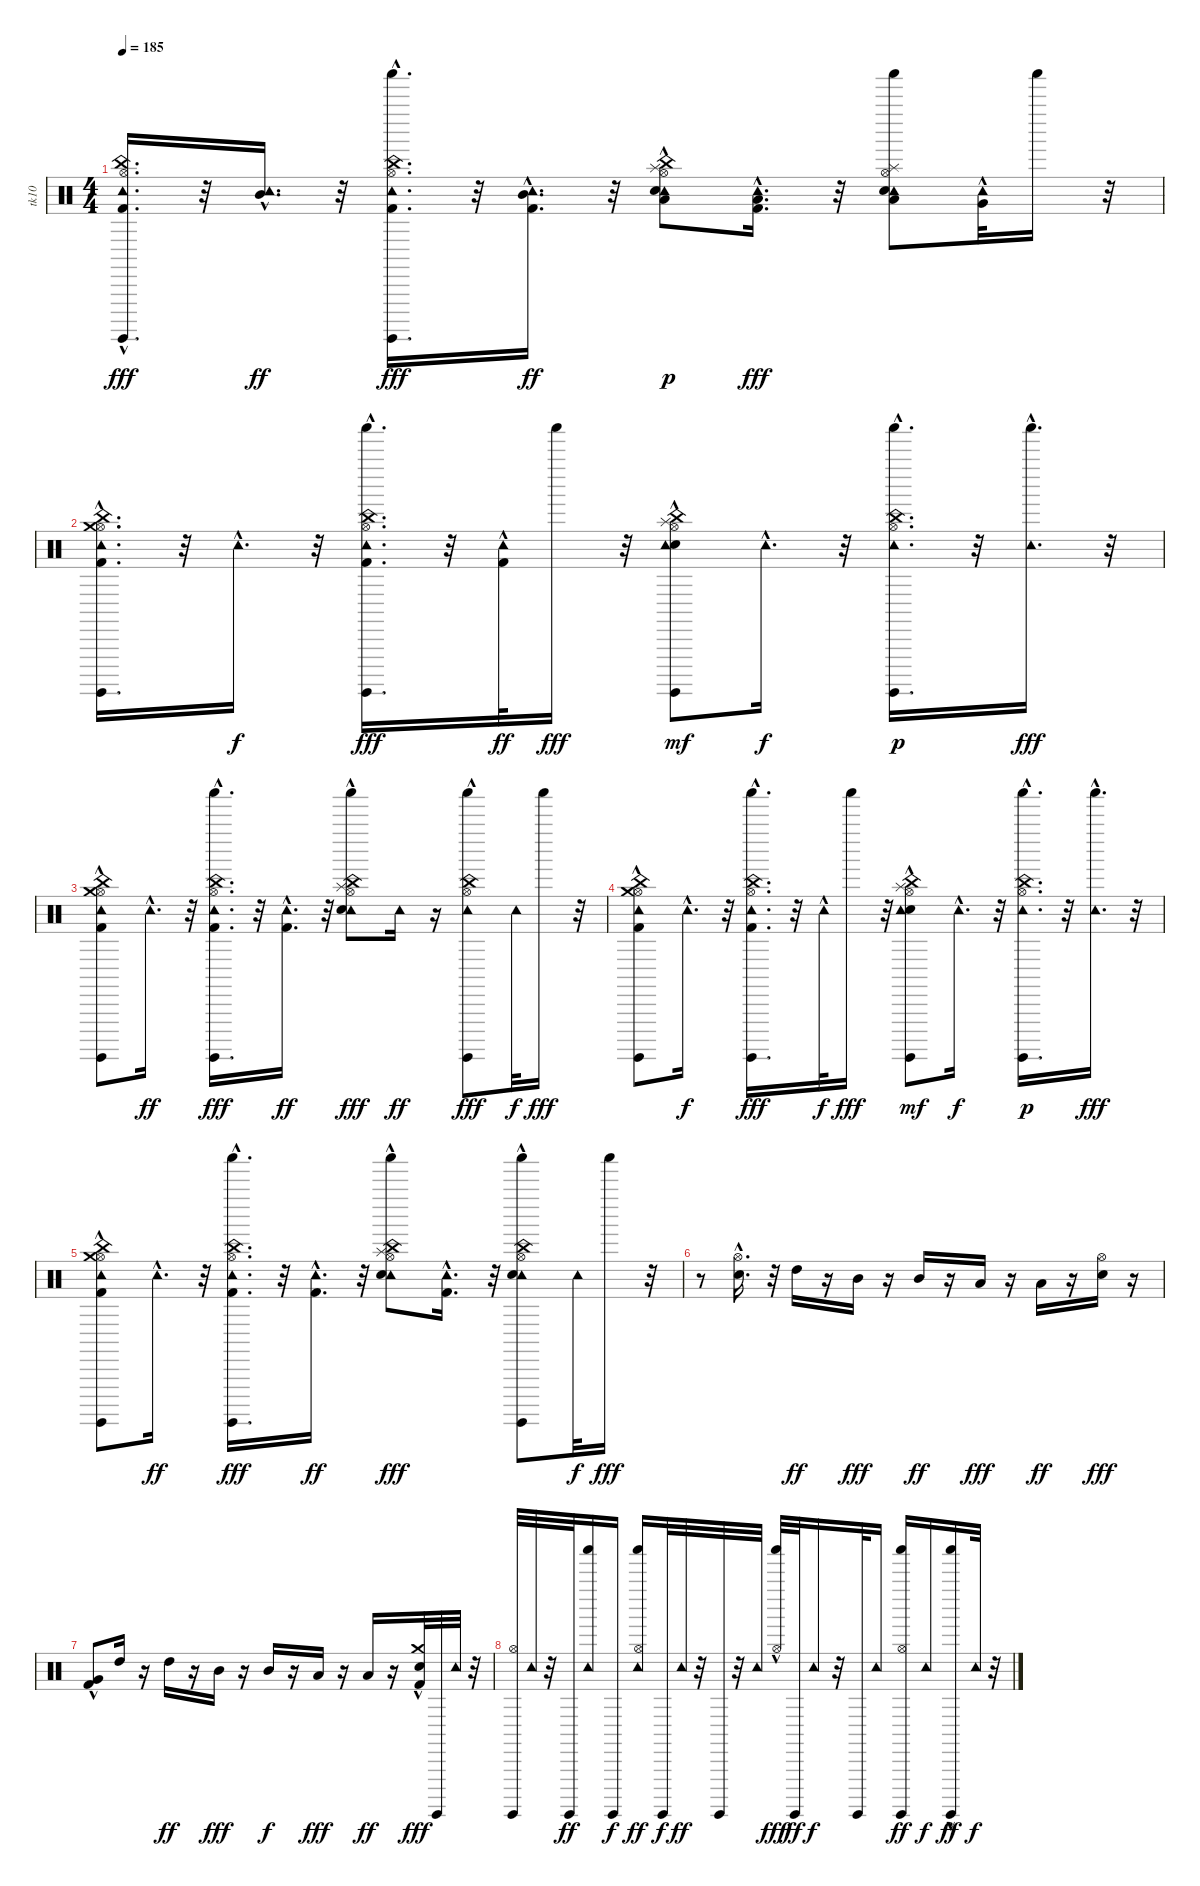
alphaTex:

\track ("tk10" "tk10") {instrument percussion}
\staff {score}
\articulation defaults
\ts (4 4)
\tempo 185
\clef neutral
\ks c
("Kick (hit) 2"{hac} "Hi-Hat (open)" "China (hit)" "Surdo (hit)" "Tambourine (hit)"{hac}).16{d dy fff} r.32 ("Mid Tom (hit)" "Tambourine (hit)"{hac}).16{d dy ff} r.32 ("Tambourine (hit)"{hac} "Shaker (hit)" "Kick (hit) 2" "Hi-Hat (open)" "China (hit)" "Surdo (hit)").16{d dy fff} r.32 ("Tambourine (hit)"{hac} "Mid Tom (hit)"{hac} "Kick (hit) 2"{hac}).16{d dy ff} r.32 ("Tambourine (hit)"{hac} "Electric Snare (hit)" "Hi-Hat (open)" "Splash (hit)" "Low Tom (hit)" "China (hit)").8{dy p} ("Tambourine (hit)" "Kick (hit) 2"{hac} "Low Tom (hit)").16{d dy fff} r.32 ("Tambourine (hit)" "Shaker (hit)" "Electric Snare (hit)" "Hi-Hat (open)" "Splash (hit)" "Low Tom (hit)").8 ("Tambourine (hit)" "Very Low Tom (hit)"{hac}).32 "Shaker (hit)".16 r.32 |
("Kick (hit) 2"{hac} "Hi-Hat (open)" "Crash medium (hit)" "Surdo (hit)" "China (hit)" "Tambourine (hit)"{hac}).16{d} r.32 "Tambourine (hit)"{hac}.16{d dy f} r.32 ("Tambourine (hit)"{hac} "Shaker (hit)" "Kick (hit) 2" "Hi-Hat (open)" "China (hit)" "Surdo (hit)").16{d dy fff} r.32 ("Tambourine (hit)"{hac} "Kick (hit) 2"{hac}).32{dy ff} "Shaker (hit)".16{dy fff} r.32 ("Electric Snare (hit)" "Hi-Hat (open)" "Splash (hit)" "China (hit)" "Tambourine (hit)"{hac} "Surdo (hit)").8{dy mf} "Tambourine (hit)"{hac}.16{d dy f} r.32 ("Shaker (hit)" "Surdo (hit)" "Tambourine (hit)"{hac} "Hi-Hat (open)" "China (hit)").16{d dy p} r.32 ("Tambourine (hit)"{hac} "Shaker (hit)").16{d dy fff} r.32 |
("Kick (hit) 2"{hac} "Hi-Hat (open)" "Crash medium (hit)" "China (hit)" "Surdo (hit)" "Tambourine (hit)"{hac}).8 "Tambourine (hit)"{hac}.16{d dy ff} r.32 ("Tambourine (hit)"{hac} "Shaker (hit)" "Kick (hit) 2" "Hi-Hat (open)" "China (hit)" "Surdo (hit)").16{d dy fff} r.32 ("Tambourine (hit)"{hac} "Kick (hit) 2"{hac}).16{d dy ff} r.32 ("Tambourine (hit)"{hac} "Electric Snare (hit)" "Hi-Hat (open)" "Splash (hit)" "China (hit)" "Shaker (hit)"{hac}).8{dy fff} "Tambourine (hit)".16{dy ff} r.16 ("Tambourine (hit)" "Shaker (hit)" "Hi-Hat (open)" "China (hit)" "Surdo (hit)"{hac}).8{dy fff} "Tambourine (hit)".32{dy f} "Shaker (hit)".16{dy fff} r.32 |
("Kick (hit) 2"{hac} "Hi-Hat (open)" "Crash medium (hit)" "Surdo (hit)" "China (hit)" "Tambourine (hit)"{hac}).8 "Tambourine (hit)"{hac}.16{d dy f} r.32 ("Tambourine (hit)"{hac} "Shaker (hit)" "Kick (hit) 2" "Hi-Hat (open)" "China (hit)" "Surdo (hit)").16{d dy fff} r.32 "Tambourine (hit)"{hac}.32{dy f} "Shaker (hit)".16{dy fff} r.32 ("Electric Snare (hit)" "Hi-Hat (open)" "Splash (hit)" "China (hit)" "Tambourine (hit)"{hac} "Surdo (hit)").8{dy mf} "Tambourine (hit)"{hac}.16{d dy f} r.32 ("Shaker (hit)" "Surdo (hit)" "Tambourine (hit)"{hac} "Hi-Hat (open)" "China (hit)").16{d dy p} r.32 ("Tambourine (hit)"{hac} "Shaker (hit)").16{d dy fff} r.32 |
("Kick (hit) 2"{hac} "Hi-Hat (open)" "Crash medium (hit)" "China (hit)" "Surdo (hit)" "Tambourine (hit)"{hac}).8 "Tambourine (hit)"{hac}.16{d dy ff} r.32 ("Tambourine (hit)"{hac} "Shaker (hit)" "Kick (hit) 2" "Hi-Hat (open)" "China (hit)" "Surdo (hit)").16{d dy fff} r.32 ("Tambourine (hit)"{hac} "Kick (hit) 2"{hac}).16{d dy ff} r.32 ("Tambourine (hit)"{hac} "Electric Snare (hit)" "Hi-Hat (open)" "Splash (hit)" "China (hit)" "Shaker (hit)"{hac}).8{dy fff} ("Tambourine (hit)" "Kick (hit) 2"{hac}).16{d} r.32 ("Tambourine (hit)" "Shaker (hit)" "Electric Snare (hit)" "Hi-Hat (open)" "China (hit)" "Surdo (hit)"{hac}).8 "Tambourine (hit)".32{dy f} "Shaker (hit)".16{dy fff} r.32 |
r.8 ("Electric Snare (hit)"{hac} "Hi-Hat (open)").16{d} r.32 "High Tom (hit)".16{dy ff} r.16 "Mid Tom (hit)".16{dy fff} r.16 "Mid Tom (hit)".16{dy ff} r.16 "Low Tom (hit)".16{dy fff} r.16 "Low Tom (hit)".16{dy ff} r.16 ("Electric Snare (hit)" "Hi-Hat (open)").16{dy fff} r.16 |
("Kick (hit) 2"{hac} "Very Low Tom (hit)").8 "High Tom (hit)".16 r.16 "High Tom (hit)".16{dy ff} r.16 "Mid Tom (hit)".16{dy fff} r.16 "Mid Tom (hit)".16{dy f} r.16 "Low Tom (hit)".16{dy fff} r.16 "Low Tom (hit)".16{dy ff} r.16 ("Electric Snare (hit)" "Crash medium (hit)"{hac} "Kick (hit) 2").32{dy fff} "Surdo (hit)".32 "Tambourine (hit)".32 r.32 |
("Surdo (hit)" "Hi-Hat (open)").32 "Tambourine (hit)".32 r.32 "Surdo (hit)".32{dy ff} ("Shaker (hit)" "Tambourine (hit)").16 "Surdo (hit)".16{dy f} ("Tambourine (hit)" "Hi-Hat (open)" "Shaker (hit)").16{dy ff} "Surdo (hit)".32{dy f} "Tambourine (hit)".32{dy ff} r.32 "Surdo (hit)".32 r.32 "Tambourine (hit)".32 ("Hi-Hat (open)" "Shaker (hit)"{hac}).32{dy fff} "Surdo (hit)".32{dy ff} "Tambourine (hit)".16{dy f} r.32 "Surdo (hit)".32 "Tambourine (hit)".16 ("Hi-Hat (open)" "Shaker (hit)" "Surdo (hit)").16{dy ff} "Tambourine (hit)".16{dy f} ("Shaker (hit)"{hac} "Surdo (hit)").16{dy ff} "Tambourine (hit)".32{dy f} r.32
